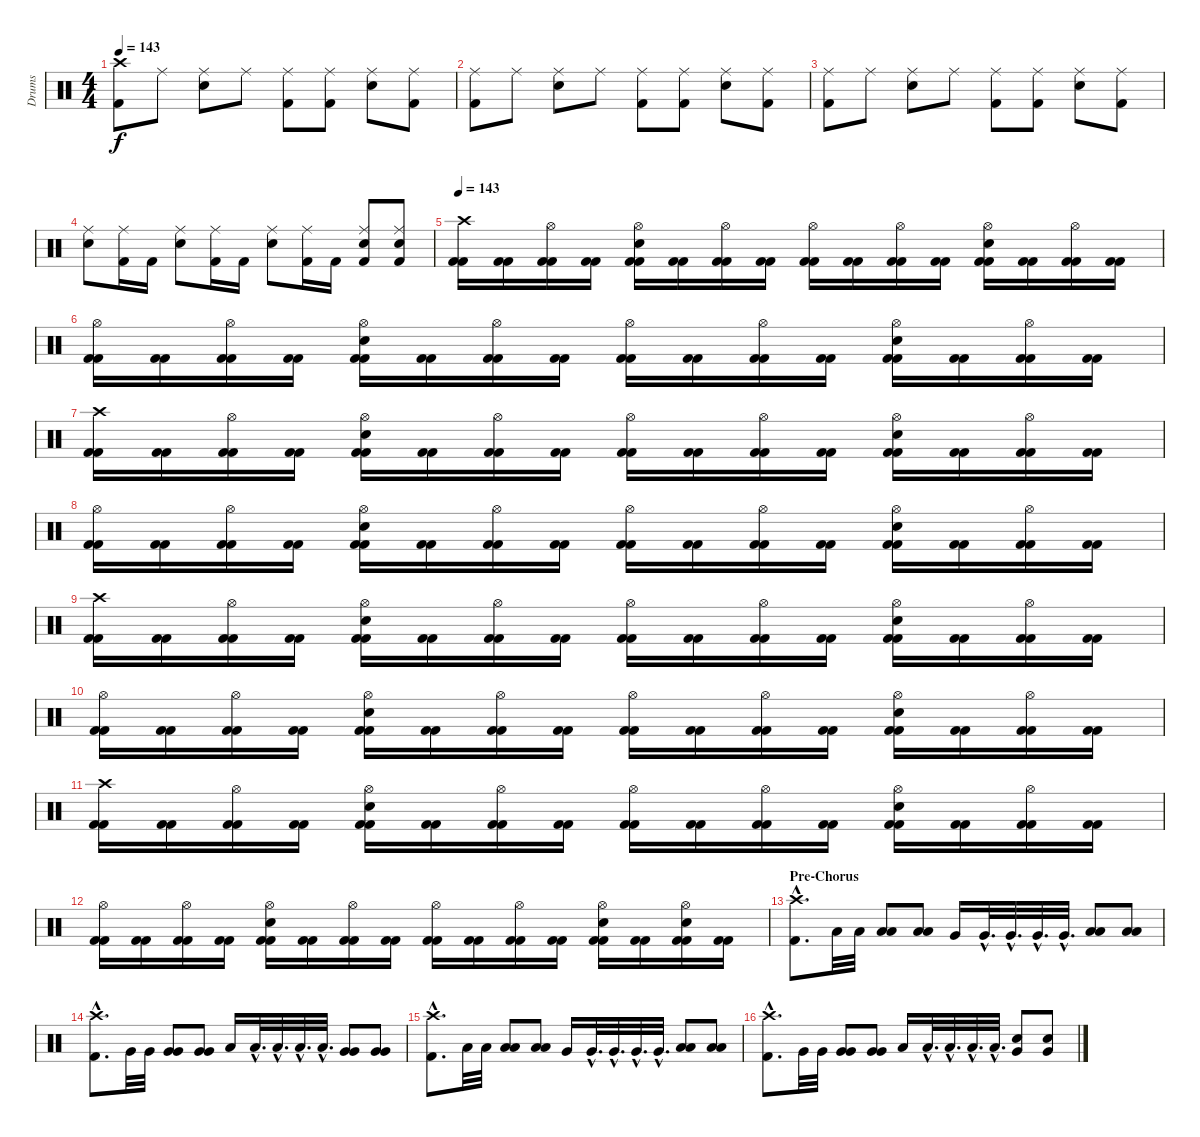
\track ("Drums" "Drums") {instrument percussion}
\staff {score}
\articulation defaults
\ts (4 4)
\tempo 143
\clef neutral
\ks c
("Kick (hit) 2" "Crash high (hit)").8{dy f} "Ride (middle)".8 ("Electric Snare (hit)" "Ride (middle)").8 "Ride (middle)".8 ("Kick (hit) 2" "Ride (middle)").8 ("Kick (hit) 2" "Ride (middle)").8 ("Electric Snare (hit)" "Ride (middle)").8 ("Kick (hit) 2" "Ride (middle)").8 |
("Kick (hit) 2" "Ride (middle)").8 "Ride (middle)".8 ("Electric Snare (hit)" "Ride (middle)").8 "Ride (middle)".8 ("Kick (hit) 2" "Ride (middle)").8 ("Kick (hit) 2" "Ride (middle)").8 ("Electric Snare (hit)" "Ride (middle)").8 ("Kick (hit) 2" "Ride (middle)").8 |
("Kick (hit) 2" "Ride (middle)").8 "Ride (middle)".8 ("Electric Snare (hit)" "Ride (middle)").8 "Ride (middle)".8 ("Kick (hit) 2" "Ride (middle)").8 ("Kick (hit) 2" "Ride (middle)").8 ("Electric Snare (hit)" "Ride (middle)").8 ("Kick (hit) 2" "Ride (middle)").8 |
("Electric Snare (hit)" "Ride (middle)").8 ("Kick (hit) 2" "Ride (middle)").16 "Kick (hit) 2".16 ("Electric Snare (hit)" "Ride (middle)").8 ("Kick (hit) 2" "Ride (middle)").16 "Kick (hit) 2".16 ("Electric Snare (hit)" "Ride (middle)").8 ("Kick (hit) 2" "Ride (middle)").16 "Kick (hit) 2".16 ("Kick (hit) 2" "Electric Snare (hit)" "Ride (middle)").8 ("Kick (hit) 2" "Electric Snare (hit)" "Ride (middle)").8 |
\tempo 143
("Kick (hit) 2" "Kick (hit) 2" "Crash high (hit)").16 ("Kick (hit) 2" "Kick (hit) 2").16 ("Kick (hit) 2" "Kick (hit) 2" "Hi-Hat (open)").16 ("Kick (hit) 2" "Kick (hit) 2").16 ("Kick (hit) 2" "Kick (hit) 2" "Electric Snare (hit)" "Hi-Hat (open)").16 ("Kick (hit) 2" "Kick (hit) 2").16 ("Kick (hit) 2" "Kick (hit) 2" "Hi-Hat (open)").16 ("Kick (hit) 2" "Kick (hit) 2").16 ("Kick (hit) 2" "Kick (hit) 2" "Hi-Hat (open)").16 ("Kick (hit) 2" "Kick (hit) 2").16 ("Kick (hit) 2" "Kick (hit) 2" "Hi-Hat (open)").16 ("Kick (hit) 2" "Kick (hit) 2").16 ("Kick (hit) 2" "Kick (hit) 2" "Electric Snare (hit)" "Hi-Hat (open)").16 ("Kick (hit) 2" "Kick (hit) 2").16 ("Kick (hit) 2" "Kick (hit) 2" "Hi-Hat (open)").16 ("Kick (hit) 2" "Kick (hit) 2").16 |
("Kick (hit) 2" "Kick (hit) 2" "Hi-Hat (open)").16 ("Kick (hit) 2" "Kick (hit) 2").16 ("Kick (hit) 2" "Kick (hit) 2" "Hi-Hat (open)").16 ("Kick (hit) 2" "Kick (hit) 2").16 ("Kick (hit) 2" "Kick (hit) 2" "Electric Snare (hit)" "Hi-Hat (open)").16 ("Kick (hit) 2" "Kick (hit) 2").16 ("Kick (hit) 2" "Kick (hit) 2" "Hi-Hat (open)").16 ("Kick (hit) 2" "Kick (hit) 2").16 ("Kick (hit) 2" "Kick (hit) 2" "Hi-Hat (open)").16 ("Kick (hit) 2" "Kick (hit) 2").16 ("Kick (hit) 2" "Kick (hit) 2" "Hi-Hat (open)").16 ("Kick (hit) 2" "Kick (hit) 2").16 ("Kick (hit) 2" "Kick (hit) 2" "Electric Snare (hit)" "Hi-Hat (open)").16 ("Kick (hit) 2" "Kick (hit) 2").16 ("Kick (hit) 2" "Kick (hit) 2" "Hi-Hat (open)").16 ("Kick (hit) 2" "Kick (hit) 2").16 |
("Kick (hit) 2" "Kick (hit) 2" "Crash high (hit)").16 ("Kick (hit) 2" "Kick (hit) 2").16 ("Kick (hit) 2" "Kick (hit) 2" "Hi-Hat (open)").16 ("Kick (hit) 2" "Kick (hit) 2").16 ("Kick (hit) 2" "Kick (hit) 2" "Electric Snare (hit)" "Hi-Hat (open)").16 ("Kick (hit) 2" "Kick (hit) 2").16 ("Kick (hit) 2" "Kick (hit) 2" "Hi-Hat (open)").16 ("Kick (hit) 2" "Kick (hit) 2").16 ("Kick (hit) 2" "Kick (hit) 2" "Hi-Hat (open)").16 ("Kick (hit) 2" "Kick (hit) 2").16 ("Kick (hit) 2" "Kick (hit) 2" "Hi-Hat (open)").16 ("Kick (hit) 2" "Kick (hit) 2").16 ("Kick (hit) 2" "Kick (hit) 2" "Electric Snare (hit)" "Hi-Hat (open)").16 ("Kick (hit) 2" "Kick (hit) 2").16 ("Kick (hit) 2" "Kick (hit) 2" "Hi-Hat (open)").16 ("Kick (hit) 2" "Kick (hit) 2").16 |
("Kick (hit) 2" "Kick (hit) 2" "Hi-Hat (open)").16 ("Kick (hit) 2" "Kick (hit) 2").16 ("Kick (hit) 2" "Kick (hit) 2" "Hi-Hat (open)").16 ("Kick (hit) 2" "Kick (hit) 2").16 ("Kick (hit) 2" "Kick (hit) 2" "Electric Snare (hit)" "Hi-Hat (open)").16 ("Kick (hit) 2" "Kick (hit) 2").16 ("Kick (hit) 2" "Kick (hit) 2" "Hi-Hat (open)").16 ("Kick (hit) 2" "Kick (hit) 2").16 ("Kick (hit) 2" "Kick (hit) 2" "Hi-Hat (open)").16 ("Kick (hit) 2" "Kick (hit) 2").16 ("Kick (hit) 2" "Kick (hit) 2" "Hi-Hat (open)").16 ("Kick (hit) 2" "Kick (hit) 2").16 ("Kick (hit) 2" "Kick (hit) 2" "Electric Snare (hit)" "Hi-Hat (open)").16 ("Kick (hit) 2" "Kick (hit) 2").16 ("Kick (hit) 2" "Kick (hit) 2" "Hi-Hat (open)").16 ("Kick (hit) 2" "Kick (hit) 2").16 |
("Kick (hit) 2" "Kick (hit) 2" "Crash high (hit)").16 ("Kick (hit) 2" "Kick (hit) 2").16 ("Kick (hit) 2" "Kick (hit) 2" "Hi-Hat (open)").16 ("Kick (hit) 2" "Kick (hit) 2").16 ("Kick (hit) 2" "Kick (hit) 2" "Electric Snare (hit)" "Hi-Hat (open)").16 ("Kick (hit) 2" "Kick (hit) 2").16 ("Kick (hit) 2" "Kick (hit) 2" "Hi-Hat (open)").16 ("Kick (hit) 2" "Kick (hit) 2").16 ("Kick (hit) 2" "Kick (hit) 2" "Hi-Hat (open)").16 ("Kick (hit) 2" "Kick (hit) 2").16 ("Kick (hit) 2" "Kick (hit) 2" "Hi-Hat (open)").16 ("Kick (hit) 2" "Kick (hit) 2").16 ("Kick (hit) 2" "Kick (hit) 2" "Electric Snare (hit)" "Hi-Hat (open)").16 ("Kick (hit) 2" "Kick (hit) 2").16 ("Kick (hit) 2" "Kick (hit) 2" "Hi-Hat (open)").16 ("Kick (hit) 2" "Kick (hit) 2").16 |
("Kick (hit) 2" "Kick (hit) 2" "Hi-Hat (open)").16 ("Kick (hit) 2" "Kick (hit) 2").16 ("Kick (hit) 2" "Kick (hit) 2" "Hi-Hat (open)").16 ("Kick (hit) 2" "Kick (hit) 2").16 ("Kick (hit) 2" "Kick (hit) 2" "Electric Snare (hit)" "Hi-Hat (open)").16 ("Kick (hit) 2" "Kick (hit) 2").16 ("Kick (hit) 2" "Kick (hit) 2" "Hi-Hat (open)").16 ("Kick (hit) 2" "Kick (hit) 2").16 ("Kick (hit) 2" "Kick (hit) 2" "Hi-Hat (open)").16 ("Kick (hit) 2" "Kick (hit) 2").16 ("Kick (hit) 2" "Kick (hit) 2" "Hi-Hat (open)").16 ("Kick (hit) 2" "Kick (hit) 2").16 ("Kick (hit) 2" "Kick (hit) 2" "Electric Snare (hit)" "Hi-Hat (open)").16 ("Kick (hit) 2" "Kick (hit) 2").16 ("Kick (hit) 2" "Kick (hit) 2" "Hi-Hat (open)").16 ("Kick (hit) 2" "Kick (hit) 2").16 |
("Kick (hit) 2" "Kick (hit) 2" "Crash high (hit)").16 ("Kick (hit) 2" "Kick (hit) 2").16 ("Kick (hit) 2" "Kick (hit) 2" "Hi-Hat (open)").16 ("Kick (hit) 2" "Kick (hit) 2").16 ("Kick (hit) 2" "Kick (hit) 2" "Electric Snare (hit)" "Hi-Hat (open)").16 ("Kick (hit) 2" "Kick (hit) 2").16 ("Kick (hit) 2" "Kick (hit) 2" "Hi-Hat (open)").16 ("Kick (hit) 2" "Kick (hit) 2").16 ("Kick (hit) 2" "Kick (hit) 2" "Hi-Hat (open)").16 ("Kick (hit) 2" "Kick (hit) 2").16 ("Kick (hit) 2" "Kick (hit) 2" "Hi-Hat (open)").16 ("Kick (hit) 2" "Kick (hit) 2").16 ("Kick (hit) 2" "Kick (hit) 2" "Electric Snare (hit)" "Hi-Hat (open)").16 ("Kick (hit) 2" "Kick (hit) 2").16 ("Kick (hit) 2" "Kick (hit) 2" "Hi-Hat (open)").16 ("Kick (hit) 2" "Kick (hit) 2").16 |
("Kick (hit) 2" "Kick (hit) 2" "Hi-Hat (open)").16 ("Kick (hit) 2" "Kick (hit) 2").16 ("Kick (hit) 2" "Kick (hit) 2" "Hi-Hat (open)").16 ("Kick (hit) 2" "Kick (hit) 2").16 ("Kick (hit) 2" "Kick (hit) 2" "Electric Snare (hit)" "Hi-Hat (open)").16 ("Kick (hit) 2" "Kick (hit) 2").16 ("Kick (hit) 2" "Kick (hit) 2" "Hi-Hat (open)").16 ("Kick (hit) 2" "Kick (hit) 2").16 ("Kick (hit) 2" "Kick (hit) 2" "Hi-Hat (open)").16 ("Kick (hit) 2" "Kick (hit) 2").16 ("Kick (hit) 2" "Kick (hit) 2" "Hi-Hat (open)").16 ("Kick (hit) 2" "Kick (hit) 2").16 ("Kick (hit) 2" "Kick (hit) 2" "Electric Snare (hit)" "Hi-Hat (open)").16 ("Kick (hit) 2" "Kick (hit) 2").16 ("Kick (hit) 2" "Kick (hit) 2" "Electric Snare (hit)" "Hi-Hat (open)").16 ("Kick (hit) 2" "Kick (hit) 2").16 |
\section ("" "Pre-Chorus")
("Kick (hit) 2"{hac} "Crash high (hit)"{hac}).8{d} "Low Tom (hit)".32 "Low Tom (hit)".32 ("Low Tom (hit)" "Low Tom (hit)").8 ("Low Tom (hit)" "Low Tom (hit)").8 "Very Low Tom (hit)".16 "Very Low Tom (hit)"{hac}.32{d} "Very Low Tom (hit)"{hac}.32{d} "Very Low Tom (hit)"{hac}.32{d} "Very Low Tom (hit)"{hac}.32{d} ("Low Tom (hit)" "Low Tom (hit)").8 ("Low Tom (hit)" "Low Tom (hit)").8 |
("Kick (hit) 2"{hac} "Crash high (hit)"{hac}).8{d} "Very Low Tom (hit)".32 "Very Low Tom (hit)".32 ("Very Low Tom (hit)" "Very Low Tom (hit)").8 ("Very Low Tom (hit)" "Very Low Tom (hit)").8 "Low Floor Tom (hit)".16 "Low Floor Tom (hit)"{hac}.32{d} "Low Floor Tom (hit)"{hac}.32{d} "Low Floor Tom (hit)"{hac}.32{d} "Low Floor Tom (hit)"{hac}.32{d} ("Very Low Tom (hit)" "Very Low Tom (hit)").8 ("Very Low Tom (hit)" "Very Low Tom (hit)").8 |
("Kick (hit) 2"{hac} "Crash high (hit)"{hac}).8{d} "Low Tom (hit)".32 "Low Tom (hit)".32 ("Low Tom (hit)" "Low Tom (hit)").8 ("Low Tom (hit)" "Low Tom (hit)").8 "Very Low Tom (hit)".16 "Very Low Tom (hit)"{hac}.32{d} "Very Low Tom (hit)"{hac}.32{d} "Very Low Tom (hit)"{hac}.32{d} "Very Low Tom (hit)"{hac}.32{d} ("Low Tom (hit)" "Low Tom (hit)").8 ("Low Tom (hit)" "Low Tom (hit)").8 |
("Kick (hit) 2"{hac} "Crash high (hit)"{hac}).8{d} "Very Low Tom (hit)".32 "Very Low Tom (hit)".32 ("Very Low Tom (hit)" "Very Low Tom (hit)").8 ("Very Low Tom (hit)" "Very Low Tom (hit)").8 "Low Floor Tom (hit)".16 "Low Floor Tom (hit)"{hac}.32{d} "Low Floor Tom (hit)"{hac}.32{d} "Low Floor Tom (hit)"{hac}.32{d} "Low Floor Tom (hit)"{hac}.32{d} ("Electric Snare (hit)" "Very Low Tom (hit)").8 ("Electric Snare (hit)" "Very Low Tom (hit)").8
